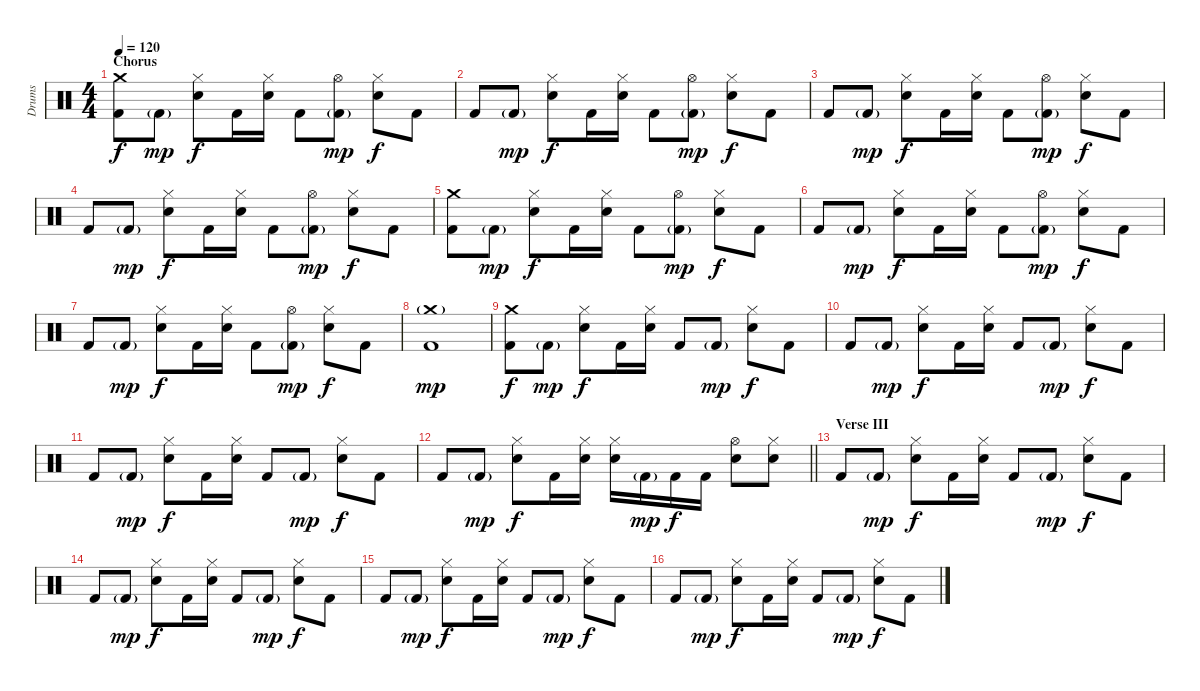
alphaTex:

\track ("Drums" "Drums") {instrument percussion}
\staff {score}
\articulation defaults
\ts (4 4)
\section ("" "Chorus")
\tempo 120
\clef neutral
\ks c
("Crash medium (hit)" "Kick (hit) 2").8{dy f} "Kick (hit) 2"{g}.8{dy mp} ("Hi-Hat (closed)" "Snare (hit) 2").8{dy f} "Kick (hit) 2".16 ("Hi-Hat (closed)" "Snare (hit) 2").16 "Kick (hit) 2".8 ("Hi-Hat (open)" "Kick (hit) 2"{g}).8{dy mp} ("Hi-Hat (closed)" "Snare (hit) 2").8{dy f} "Kick (hit) 2".8 |
"Kick (hit) 2".8 "Kick (hit) 2"{g}.8{dy mp} ("Hi-Hat (closed)" "Snare (hit) 2").8{dy f} "Kick (hit) 2".16 ("Hi-Hat (closed)" "Snare (hit) 2").16 "Kick (hit) 2".8 ("Hi-Hat (open)" "Kick (hit) 2"{g}).8{dy mp} ("Hi-Hat (closed)" "Snare (hit) 2").8{dy f} "Kick (hit) 2".8 |
"Kick (hit) 2".8 "Kick (hit) 2"{g}.8{dy mp} ("Hi-Hat (closed)" "Snare (hit) 2").8{dy f} "Kick (hit) 2".16 ("Hi-Hat (closed)" "Snare (hit) 2").16 "Kick (hit) 2".8 ("Hi-Hat (open)" "Kick (hit) 2"{g}).8{dy mp} ("Hi-Hat (closed)" "Snare (hit) 2").8{dy f} "Kick (hit) 2".8 |
"Kick (hit) 2".8 "Kick (hit) 2"{g}.8{dy mp} ("Hi-Hat (closed)" "Snare (hit) 2").8{dy f} "Kick (hit) 2".16 ("Hi-Hat (closed)" "Snare (hit) 2").16 "Kick (hit) 2".8 ("Hi-Hat (open)" "Kick (hit) 2"{g}).8{dy mp} ("Hi-Hat (closed)" "Snare (hit) 2").8{dy f} "Kick (hit) 2".8 |
("Crash medium (hit)" "Kick (hit) 2").8 "Kick (hit) 2"{g}.8{dy mp} ("Hi-Hat (closed)" "Snare (hit) 2").8{dy f} "Kick (hit) 2".16 ("Hi-Hat (closed)" "Snare (hit) 2").16 "Kick (hit) 2".8 ("Hi-Hat (open)" "Kick (hit) 2"{g}).8{dy mp} ("Hi-Hat (closed)" "Snare (hit) 2").8{dy f} "Kick (hit) 2".8 |
"Kick (hit) 2".8 "Kick (hit) 2"{g}.8{dy mp} ("Hi-Hat (closed)" "Snare (hit) 2").8{dy f} "Kick (hit) 2".16 ("Hi-Hat (closed)" "Snare (hit) 2").16 "Kick (hit) 2".8 ("Hi-Hat (open)" "Kick (hit) 2"{g}).8{dy mp} ("Hi-Hat (closed)" "Snare (hit) 2").8{dy f} "Kick (hit) 2".8 |
"Kick (hit) 2".8 "Kick (hit) 2"{g}.8{dy mp} ("Hi-Hat (closed)" "Snare (hit) 2").8{dy f} "Kick (hit) 2".16 ("Hi-Hat (closed)" "Snare (hit) 2").16 "Kick (hit) 2".8 ("Hi-Hat (open)" "Kick (hit) 2"{g}).8{dy mp} ("Hi-Hat (closed)" "Snare (hit) 2").8{dy f} "Kick (hit) 2".8 |
("Crash medium (hit)"{g} "Kick (hit) 2").1{dy mp} |
("Crash medium (hit)" "Kick (hit) 2").8{dy f} "Kick (hit) 2"{g}.8{dy mp} ("Hi-Hat (closed)" "Snare (hit) 2").8{dy f} "Kick (hit) 2".16 ("Hi-Hat (closed)" "Snare (hit) 2").16 "Kick (hit) 2".8 "Kick (hit) 2"{g}.8{dy mp} ("Hi-Hat (closed)" "Snare (hit) 2").8{dy f} "Kick (hit) 2".8 |
"Kick (hit) 2".8 "Kick (hit) 2"{g}.8{dy mp} ("Hi-Hat (closed)" "Snare (hit) 2").8{dy f} "Kick (hit) 2".16 ("Hi-Hat (closed)" "Snare (hit) 2").16 "Kick (hit) 2".8 "Kick (hit) 2"{g}.8{dy mp} ("Hi-Hat (closed)" "Snare (hit) 2").8{dy f} "Kick (hit) 2".8 |
"Kick (hit) 2".8 "Kick (hit) 2"{g}.8{dy mp} ("Hi-Hat (closed)" "Snare (hit) 2").8{dy f} "Kick (hit) 2".16 ("Hi-Hat (closed)" "Snare (hit) 2").16 "Kick (hit) 2".8 "Kick (hit) 2"{g}.8{dy mp} ("Hi-Hat (closed)" "Snare (hit) 2").8{dy f} "Kick (hit) 2".8 |
\barLineRight lightlight "Kick (hit) 2".8 "Kick (hit) 2"{g}.8{dy mp}
("Hi-Hat (closed)" "Snare (hit) 2").8{dy f} "Kick (hit) 2".16 ("Hi-Hat (closed)" "Snare (hit) 2").16 ("Hi-Hat (closed)" "Snare (hit) 2").16 "Kick (hit) 2"{g}.16{dy mp} "Kick (hit) 2".16{dy f} "Kick (hit) 2".16 ("Hi-Hat (open)" "Snare (hit) 2").8 ("Hi-Hat (closed)" "Snare (hit) 2").8 |
\section ("" "Verse III")
"Kick (hit) 2".8 "Kick (hit) 2"{g}.8{dy mp} ("Hi-Hat (closed)" "Snare (hit) 2").8{dy f} "Kick (hit) 2".16 ("Hi-Hat (closed)" "Snare (hit) 2").16 "Kick (hit) 2".8 "Kick (hit) 2"{g}.8{dy mp} ("Hi-Hat (closed)" "Snare (hit) 2").8{dy f} "Kick (hit) 2".8 |
"Kick (hit) 2".8 "Kick (hit) 2"{g}.8{dy mp} ("Hi-Hat (closed)" "Snare (hit) 2").8{dy f} "Kick (hit) 2".16 ("Hi-Hat (closed)" "Snare (hit) 2").16 "Kick (hit) 2".8 "Kick (hit) 2"{g}.8{dy mp} ("Hi-Hat (closed)" "Snare (hit) 2").8{dy f} "Kick (hit) 2".8 |
"Kick (hit) 2".8 "Kick (hit) 2"{g}.8{dy mp} ("Hi-Hat (closed)" "Snare (hit) 2").8{dy f} "Kick (hit) 2".16 ("Hi-Hat (closed)" "Snare (hit) 2").16 "Kick (hit) 2".8 "Kick (hit) 2"{g}.8{dy mp} ("Hi-Hat (closed)" "Snare (hit) 2").8{dy f} "Kick (hit) 2".8 |
"Kick (hit) 2".8 "Kick (hit) 2"{g}.8{dy mp} ("Hi-Hat (closed)" "Snare (hit) 2").8{dy f} "Kick (hit) 2".16 ("Hi-Hat (closed)" "Snare (hit) 2").16 "Kick (hit) 2".8 "Kick (hit) 2"{g}.8{dy mp} ("Hi-Hat (closed)" "Snare (hit) 2").8{dy f} "Kick (hit) 2".8
